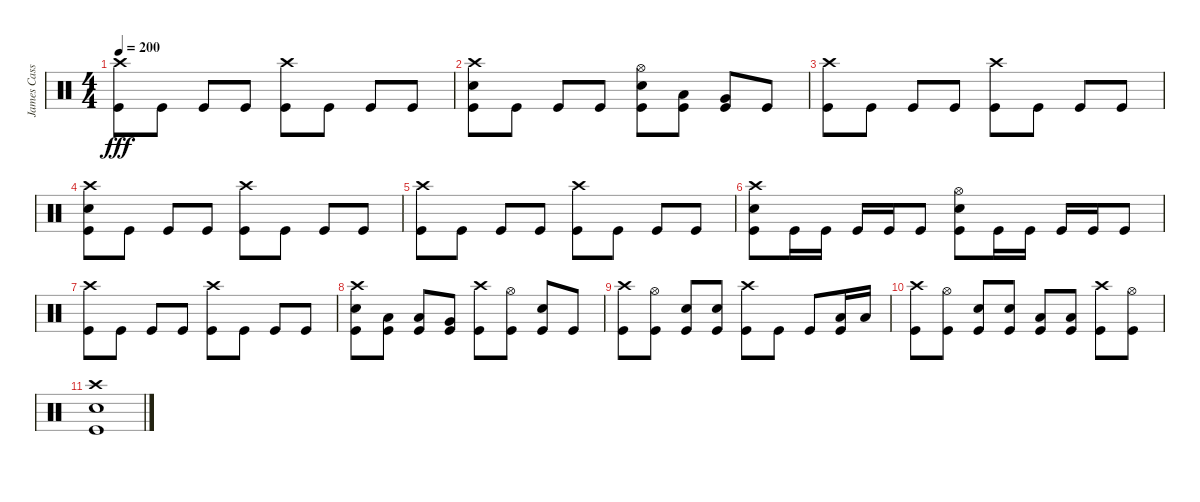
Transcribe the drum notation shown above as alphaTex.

\track ("James Cassells" "James Cass") {instrument percussion}
\staff {score}
\articulation defaults
\ts (4 4)
\tempo 200
\clef neutral
\ks c
("Crash high (hit)" "Kick (hit)").8{dy fff} "Kick (hit)".8 "Kick (hit)".8 "Kick (hit)".8 ("Crash high (hit)" "Kick (hit)").8 "Kick (hit)".8 "Kick (hit)".8 "Kick (hit)".8 |
("Crash high (hit)" "Electric Snare (hit)" "Kick (hit)").8 "Kick (hit)".8 "Kick (hit)".8 "Kick (hit)".8 ("Hi-Hat (open)" "Electric Snare (hit)" "Kick (hit)").8 ("Low Tom (hit)" "Kick (hit)").8 ("Very Low Tom (hit)" "Kick (hit)").8 "Kick (hit)".8 |
("Crash high (hit)" "Kick (hit)").8 "Kick (hit)".8 "Kick (hit)".8 "Kick (hit)".8 ("Crash high (hit)" "Kick (hit)").8 "Kick (hit)".8 "Kick (hit)".8 "Kick (hit)".8 |
("Crash high (hit)" "Electric Snare (hit)" "Kick (hit)").8 "Kick (hit)".8 "Kick (hit)".8 "Kick (hit)".8 ("Crash high (hit)" "Kick (hit)").8 "Kick (hit)".8 "Kick (hit)".8 "Kick (hit)".8 |
("Crash high (hit)" "Kick (hit)").8 "Kick (hit)".8 "Kick (hit)".8 "Kick (hit)".8 ("Crash high (hit)" "Kick (hit)").8 "Kick (hit)".8 "Kick (hit)".8 "Kick (hit)".8 |
("Crash high (hit)" "Electric Snare (hit)" "Kick (hit)").8 "Kick (hit)".16 "Kick (hit)".16 "Kick (hit)".16 "Kick (hit)".16 "Kick (hit)".8 ("Hi-Hat (open)" "Electric Snare (hit)" "Kick (hit)").8 "Kick (hit)".16 "Kick (hit)".16 "Kick (hit)".16 "Kick (hit)".16 "Kick (hit)".8 |
("Crash high (hit)" "Kick (hit)").8 "Kick (hit)".8 "Kick (hit)".8 "Kick (hit)".8 ("Crash high (hit)" "Kick (hit)").8 "Kick (hit)".8 "Kick (hit)".8 "Kick (hit)".8 |
("Crash high (hit)" "Electric Snare (hit)" "Kick (hit)").8 ("Low Tom (hit)" "Kick (hit)").8 ("Low Tom (hit)" "Kick (hit)").8 ("Very Low Tom (hit)" "Kick (hit)").8 ("Crash high (hit)" "Kick (hit)").8 ("Hi-Hat (open)" "Kick (hit)").8 ("Electric Snare (hit)" "Kick (hit)").8 "Kick (hit)".8 |
("Crash high (hit)" "Kick (hit)").8 ("Hi-Hat (open)" "Kick (hit)").8 ("Electric Snare (hit)" "Kick (hit)").8 ("Electric Snare (hit)" "Kick (hit)").8 ("Crash high (hit)" "Kick (hit)").8 "Kick (hit)".8 "Kick (hit)".8 ("Low Tom (hit)" "Kick (hit)").16 "Low Tom (hit)".16 |
("Crash high (hit)" "Kick (hit)").8 ("Hi-Hat (open)" "Kick (hit)").8 ("Electric Snare (hit)" "Kick (hit)").8 ("Electric Snare (hit)" "Kick (hit)").8 ("Low Tom (hit)" "Kick (hit)").8 ("Low Tom (hit)" "Kick (hit)").8 ("Crash high (hit)" "Kick (hit)").8 ("Hi-Hat (open)" "Kick (hit)").8 |
("Crash high (hit)" "Electric Snare (hit)" "Kick (hit)").1
